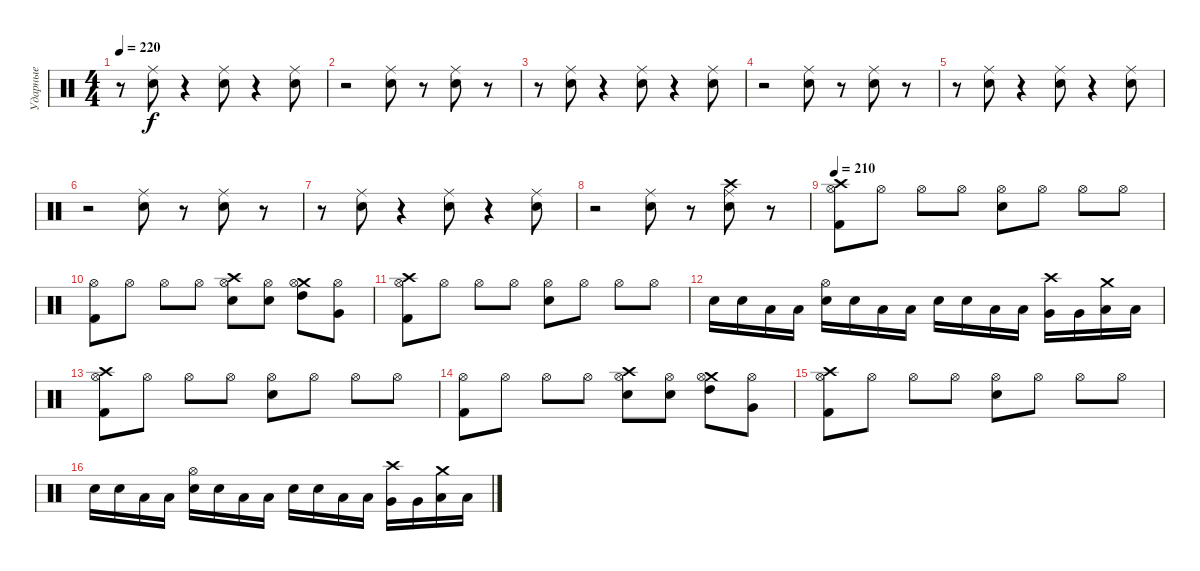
\track ("Ударные" "Ударные") {instrument percussion}
\staff {score}
\articulation defaults
\ts (4 4)
\tempo 220
\clef neutral
\ks c
r.8{dy f} ("Ride (middle)" "Electric Snare (hit)").8 r.4 ("Ride (middle)" "Electric Snare (hit)").8 r.4 ("Ride (middle)" "Electric Snare (hit)").8 |
r.2 ("Ride (middle)" "Electric Snare (hit)").8 r.8 ("Ride (middle)" "Electric Snare (hit)").8 r.8 |
r.8 ("Ride (middle)" "Electric Snare (hit)").8 r.4 ("Ride (middle)" "Electric Snare (hit)").8 r.4 ("Ride (middle)" "Electric Snare (hit)").8 |
r.2 ("Ride (middle)" "Electric Snare (hit)").8 r.8 ("Ride (middle)" "Electric Snare (hit)").8 r.8 |
r.8 ("Ride (middle)" "Electric Snare (hit)").8 r.4 ("Ride (middle)" "Electric Snare (hit)").8 r.4 ("Ride (middle)" "Electric Snare (hit)").8 |
r.2 ("Ride (middle)" "Electric Snare (hit)").8 r.8 ("Ride (middle)" "Electric Snare (hit)").8 r.8 |
r.8 ("Ride (middle)" "Electric Snare (hit)").8 r.4 ("Ride (middle)" "Electric Snare (hit)").8 r.4 ("Ride (middle)" "Electric Snare (hit)").8 |
r.2 ("Ride (middle)" "Electric Snare (hit)").8 r.8 ("Crash high (hit)" "Ride (middle)" "Electric Snare (hit)").8 r.8 |
\tempo 210
("Crash high (hit)" "Hi-Hat (open)" "Kick (hit) 2").8 "Hi-Hat (open)".8 "Hi-Hat (open)".8 "Hi-Hat (open)".8 ("Hi-Hat (open)" "Snare (hit) 2").8 "Hi-Hat (open)".8 "Hi-Hat (open)".8 "Hi-Hat (open)".8 |
("Hi-Hat (open)" "Kick (hit) 2").8 "Hi-Hat (open)".8 "Hi-Hat (open)".8 "Hi-Hat (open)".8 ("Crash high (hit)" "Hi-Hat (open)" "Snare (hit) 2").8 ("Hi-Hat (open)" "Electric Snare (hit)").8 ("Crash medium (hit)" "Hi-Hat (open)" "High Tom (hit)").8 ("Hi-Hat (open)" "Very Low Tom (hit)").8 |
("Crash high (hit)" "Hi-Hat (open)" "Kick (hit) 2").8 "Hi-Hat (open)".8 "Hi-Hat (open)".8 "Hi-Hat (open)".8 ("Hi-Hat (open)" "Snare (hit) 2").8 "Hi-Hat (open)".8 "Hi-Hat (open)".8 "Hi-Hat (open)".8 |
"Snare (hit) 2".16 "Snare (hit) 2".16 "Low Tom (hit)".16 "Low Tom (hit)".16 ("Hi-Hat (open)" "Snare (hit) 2").16 "Snare (hit) 2".16 "Low Tom (hit)".16 "Low Tom (hit)".16 "Snare (hit) 2".16 "Snare (hit) 2".16 "Low Tom (hit)".16 "Low Tom (hit)".16 ("Crash high (hit)" "Very Low Tom (hit)").16 "Very Low Tom (hit)".16 ("Crash medium (hit)" "Low Floor Tom (hit)").16 "Low Floor Tom (hit)".16 |
("Crash high (hit)" "Hi-Hat (open)" "Kick (hit) 2").8 "Hi-Hat (open)".8 "Hi-Hat (open)".8 "Hi-Hat (open)".8 ("Hi-Hat (open)" "Snare (hit) 2").8 "Hi-Hat (open)".8 "Hi-Hat (open)".8 "Hi-Hat (open)".8 |
("Hi-Hat (open)" "Kick (hit) 2").8 "Hi-Hat (open)".8 "Hi-Hat (open)".8 "Hi-Hat (open)".8 ("Crash high (hit)" "Hi-Hat (open)" "Snare (hit) 2").8 ("Hi-Hat (open)" "Electric Snare (hit)").8 ("Crash medium (hit)" "Hi-Hat (open)" "High Tom (hit)").8 ("Hi-Hat (open)" "Very Low Tom (hit)").8 |
("Crash high (hit)" "Hi-Hat (open)" "Kick (hit) 2").8 "Hi-Hat (open)".8 "Hi-Hat (open)".8 "Hi-Hat (open)".8 ("Hi-Hat (open)" "Snare (hit) 2").8 "Hi-Hat (open)".8 "Hi-Hat (open)".8 "Hi-Hat (open)".8 |
"Snare (hit) 2".16 "Snare (hit) 2".16 "Low Tom (hit)".16 "Low Tom (hit)".16 ("Hi-Hat (open)" "Snare (hit) 2").16 "Snare (hit) 2".16 "Low Tom (hit)".16 "Low Tom (hit)".16 "Snare (hit) 2".16 "Snare (hit) 2".16 "Low Tom (hit)".16 "Low Tom (hit)".16 ("Crash high (hit)" "Very Low Tom (hit)").16 "Very Low Tom (hit)".16 ("Crash medium (hit)" "Low Floor Tom (hit)").16 "Low Floor Tom (hit)".16
